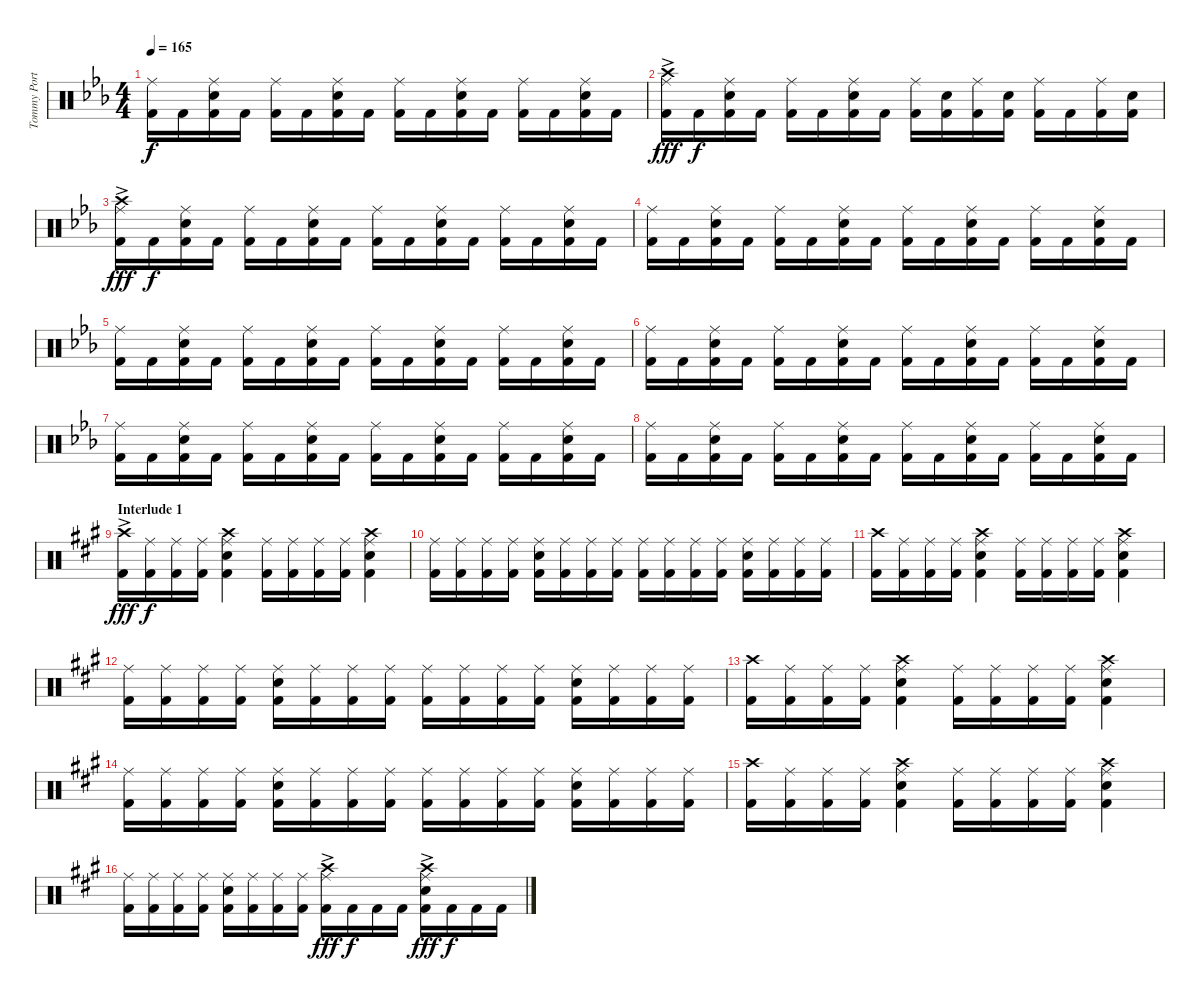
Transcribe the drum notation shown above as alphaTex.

\track ("Tommy Portimo" "Tommy Port") {instrument percussion}
\staff {score}
\articulation defaults
\ts (4 4)
\tempo 165
\clef neutral
\ks cminor
("Ride (middle)" "Kick (hit) 2").16{dy f} "Kick (hit) 2".16 ("Ride (middle)" "Electric Snare (hit)" "Kick (hit) 2").16 "Kick (hit) 2".16 ("Ride (middle)" "Kick (hit) 2").16 "Kick (hit) 2".16 ("Ride (middle)" "Electric Snare (hit)" "Kick (hit) 2").16 "Kick (hit) 2".16 ("Ride (middle)" "Kick (hit) 2").16 "Kick (hit) 2".16 ("Ride (middle)" "Electric Snare (hit)" "Kick (hit) 2").16 "Kick (hit) 2".16 ("Ride (middle)" "Kick (hit) 2").16 "Kick (hit) 2".16 ("Ride (middle)" "Electric Snare (hit)" "Kick (hit) 2").16 "Kick (hit) 2".16 |
("Crash high (hit)"{ac} "Ride (middle)" "Kick (hit) 2").16{dy fff} "Kick (hit) 2".16{dy f} ("Ride (middle)" "Electric Snare (hit)" "Kick (hit) 2").16 "Kick (hit) 2".16 ("Ride (middle)" "Kick (hit) 2").16 "Kick (hit) 2".16 ("Ride (middle)" "Electric Snare (hit)" "Kick (hit) 2").16 "Kick (hit) 2".16 ("Ride (middle)" "Kick (hit) 2").16 ("Electric Snare (hit)" "Kick (hit) 2").16 ("Ride (middle)" "Kick (hit) 2").16 ("Electric Snare (hit)" "Kick (hit) 2").16 ("Ride (middle)" "Kick (hit) 2").16 "Kick (hit) 2".16 ("Ride (middle)" "Kick (hit) 2").16 ("Electric Snare (hit)" "Kick (hit) 2").16 |
("Crash high (hit)"{ac} "Ride (middle)" "Kick (hit) 2").16{dy fff} "Kick (hit) 2".16{dy f} ("Ride (middle)" "Electric Snare (hit)" "Kick (hit) 2").16 "Kick (hit) 2".16 ("Ride (middle)" "Kick (hit) 2").16 "Kick (hit) 2".16 ("Ride (middle)" "Electric Snare (hit)" "Kick (hit) 2").16 "Kick (hit) 2".16 ("Ride (middle)" "Kick (hit) 2").16 "Kick (hit) 2".16 ("Ride (middle)" "Electric Snare (hit)" "Kick (hit) 2").16 "Kick (hit) 2".16 ("Ride (middle)" "Kick (hit) 2").16 "Kick (hit) 2".16 ("Ride (middle)" "Electric Snare (hit)" "Kick (hit) 2").16 "Kick (hit) 2".16 |
("Ride (middle)" "Kick (hit) 2").16 "Kick (hit) 2".16 ("Ride (middle)" "Electric Snare (hit)" "Kick (hit) 2").16 "Kick (hit) 2".16 ("Ride (middle)" "Kick (hit) 2").16 "Kick (hit) 2".16 ("Ride (middle)" "Electric Snare (hit)" "Kick (hit) 2").16 "Kick (hit) 2".16 ("Ride (middle)" "Kick (hit) 2").16 "Kick (hit) 2".16 ("Ride (middle)" "Electric Snare (hit)" "Kick (hit) 2").16 "Kick (hit) 2".16 ("Ride (middle)" "Kick (hit) 2").16 "Kick (hit) 2".16 ("Ride (middle)" "Electric Snare (hit)" "Kick (hit) 2").16 "Kick (hit) 2".16 |
("Ride (middle)" "Kick (hit) 2").16 "Kick (hit) 2".16 ("Ride (middle)" "Electric Snare (hit)" "Kick (hit) 2").16 "Kick (hit) 2".16 ("Ride (middle)" "Kick (hit) 2").16 "Kick (hit) 2".16 ("Ride (middle)" "Electric Snare (hit)" "Kick (hit) 2").16 "Kick (hit) 2".16 ("Ride (middle)" "Kick (hit) 2").16 "Kick (hit) 2".16 ("Ride (middle)" "Electric Snare (hit)" "Kick (hit) 2").16 "Kick (hit) 2".16 ("Ride (middle)" "Kick (hit) 2").16 "Kick (hit) 2".16 ("Ride (middle)" "Electric Snare (hit)" "Kick (hit) 2").16 "Kick (hit) 2".16 |
("Ride (middle)" "Kick (hit) 2").16 "Kick (hit) 2".16 ("Ride (middle)" "Electric Snare (hit)" "Kick (hit) 2").16 "Kick (hit) 2".16 ("Ride (middle)" "Kick (hit) 2").16 "Kick (hit) 2".16 ("Ride (middle)" "Electric Snare (hit)" "Kick (hit) 2").16 "Kick (hit) 2".16 ("Ride (middle)" "Kick (hit) 2").16 "Kick (hit) 2".16 ("Ride (middle)" "Electric Snare (hit)" "Kick (hit) 2").16 "Kick (hit) 2".16 ("Ride (middle)" "Kick (hit) 2").16 "Kick (hit) 2".16 ("Ride (middle)" "Electric Snare (hit)" "Kick (hit) 2").16 "Kick (hit) 2".16 |
("Ride (middle)" "Kick (hit) 2").16 "Kick (hit) 2".16 ("Ride (middle)" "Electric Snare (hit)" "Kick (hit) 2").16 "Kick (hit) 2".16 ("Ride (middle)" "Kick (hit) 2").16 "Kick (hit) 2".16 ("Ride (middle)" "Electric Snare (hit)" "Kick (hit) 2").16 "Kick (hit) 2".16 ("Ride (middle)" "Kick (hit) 2").16 "Kick (hit) 2".16 ("Ride (middle)" "Electric Snare (hit)" "Kick (hit) 2").16 "Kick (hit) 2".16 ("Ride (middle)" "Kick (hit) 2").16 "Kick (hit) 2".16 ("Ride (middle)" "Electric Snare (hit)" "Kick (hit) 2").16 "Kick (hit) 2".16 |
("Ride (middle)" "Kick (hit) 2").16 "Kick (hit) 2".16 ("Ride (middle)" "Electric Snare (hit)" "Kick (hit) 2").16 "Kick (hit) 2".16 ("Ride (middle)" "Kick (hit) 2").16 "Kick (hit) 2".16 ("Ride (middle)" "Electric Snare (hit)" "Kick (hit) 2").16 "Kick (hit) 2".16 ("Ride (middle)" "Kick (hit) 2").16 "Kick (hit) 2".16 ("Ride (middle)" "Electric Snare (hit)" "Kick (hit) 2").16 "Kick (hit) 2".16 ("Ride (middle)" "Kick (hit) 2").16 "Kick (hit) 2".16 ("Ride (middle)" "Electric Snare (hit)" "Kick (hit) 2").16 "Kick (hit) 2".16 |
\section ("" "Interlude 1")
\ks f#minor
("Crash high (hit)"{ac} "Kick (hit) 2").16{dy fff} ("Ride (middle)" "Kick (hit) 2").16{dy f} ("Ride (middle)" "Kick (hit) 2").16 ("Ride (middle)" "Kick (hit) 2").16 ("Crash high (hit)" "Ride (middle)" "Electric Snare (hit)" "Kick (hit) 2").4 ("Ride (middle)" "Kick (hit) 2").16 ("Ride (middle)" "Kick (hit) 2").16 ("Ride (middle)" "Kick (hit) 2").16 ("Ride (middle)" "Kick (hit) 2").16 ("Crash high (hit)" "Ride (middle)" "Electric Snare (hit)" "Kick (hit) 2").4 |
("Ride (middle)" "Kick (hit) 2").16 ("Ride (middle)" "Kick (hit) 2").16 ("Ride (middle)" "Kick (hit) 2").16 ("Ride (middle)" "Kick (hit) 2").16 ("Ride (middle)" "Electric Snare (hit)" "Kick (hit) 2").16 ("Ride (middle)" "Kick (hit) 2").16 ("Ride (middle)" "Kick (hit) 2").16 ("Ride (middle)" "Kick (hit) 2").16 ("Ride (middle)" "Kick (hit) 2").16 ("Ride (middle)" "Kick (hit) 2").16 ("Ride (middle)" "Kick (hit) 2").16 ("Ride (middle)" "Kick (hit) 2").16 ("Ride (middle)" "Electric Snare (hit)" "Kick (hit) 2").16 ("Ride (middle)" "Kick (hit) 2").16 ("Ride (middle)" "Kick (hit) 2").16 ("Ride (middle)" "Kick (hit) 2").16 |
("Crash high (hit)" "Kick (hit) 2").16 ("Ride (middle)" "Kick (hit) 2").16 ("Ride (middle)" "Kick (hit) 2").16 ("Ride (middle)" "Kick (hit) 2").16 ("Crash high (hit)" "Ride (middle)" "Electric Snare (hit)" "Kick (hit) 2").4 ("Ride (middle)" "Kick (hit) 2").16 ("Ride (middle)" "Kick (hit) 2").16 ("Ride (middle)" "Kick (hit) 2").16 ("Ride (middle)" "Kick (hit) 2").16 ("Crash high (hit)" "Ride (middle)" "Electric Snare (hit)" "Kick (hit) 2").4 |
("Ride (middle)" "Kick (hit) 2").16 ("Ride (middle)" "Kick (hit) 2").16 ("Ride (middle)" "Kick (hit) 2").16 ("Ride (middle)" "Kick (hit) 2").16 ("Ride (middle)" "Electric Snare (hit)" "Kick (hit) 2").16 ("Ride (middle)" "Kick (hit) 2").16 ("Ride (middle)" "Kick (hit) 2").16 ("Ride (middle)" "Kick (hit) 2").16 ("Ride (middle)" "Kick (hit) 2").16 ("Ride (middle)" "Kick (hit) 2").16 ("Ride (middle)" "Kick (hit) 2").16 ("Ride (middle)" "Kick (hit) 2").16 ("Ride (middle)" "Electric Snare (hit)" "Kick (hit) 2").16 ("Ride (middle)" "Kick (hit) 2").16 ("Ride (middle)" "Kick (hit) 2").16 ("Ride (middle)" "Kick (hit) 2").16 |
("Crash high (hit)" "Kick (hit) 2").16 ("Ride (middle)" "Kick (hit) 2").16 ("Ride (middle)" "Kick (hit) 2").16 ("Ride (middle)" "Kick (hit) 2").16 ("Crash high (hit)" "Ride (middle)" "Electric Snare (hit)" "Kick (hit) 2").4 ("Ride (middle)" "Kick (hit) 2").16 ("Ride (middle)" "Kick (hit) 2").16 ("Ride (middle)" "Kick (hit) 2").16 ("Ride (middle)" "Kick (hit) 2").16 ("Crash high (hit)" "Ride (middle)" "Electric Snare (hit)" "Kick (hit) 2").4 |
("Ride (middle)" "Kick (hit) 2").16 ("Ride (middle)" "Kick (hit) 2").16 ("Ride (middle)" "Kick (hit) 2").16 ("Ride (middle)" "Kick (hit) 2").16 ("Ride (middle)" "Electric Snare (hit)" "Kick (hit) 2").16 ("Ride (middle)" "Kick (hit) 2").16 ("Ride (middle)" "Kick (hit) 2").16 ("Ride (middle)" "Kick (hit) 2").16 ("Ride (middle)" "Kick (hit) 2").16 ("Ride (middle)" "Kick (hit) 2").16 ("Ride (middle)" "Kick (hit) 2").16 ("Ride (middle)" "Kick (hit) 2").16 ("Ride (middle)" "Electric Snare (hit)" "Kick (hit) 2").16 ("Ride (middle)" "Kick (hit) 2").16 ("Ride (middle)" "Kick (hit) 2").16 ("Ride (middle)" "Kick (hit) 2").16 |
("Crash high (hit)" "Kick (hit) 2").16 ("Ride (middle)" "Kick (hit) 2").16 ("Ride (middle)" "Kick (hit) 2").16 ("Ride (middle)" "Kick (hit) 2").16 ("Crash high (hit)" "Ride (middle)" "Electric Snare (hit)" "Kick (hit) 2").4 ("Ride (middle)" "Kick (hit) 2").16 ("Ride (middle)" "Kick (hit) 2").16 ("Ride (middle)" "Kick (hit) 2").16 ("Ride (middle)" "Kick (hit) 2").16 ("Crash high (hit)" "Ride (middle)" "Electric Snare (hit)" "Kick (hit) 2").4 |
("Ride (middle)" "Kick (hit) 2").16 ("Ride (middle)" "Kick (hit) 2").16 ("Ride (middle)" "Kick (hit) 2").16 ("Ride (middle)" "Kick (hit) 2").16 ("Ride (middle)" "Electric Snare (hit)" "Kick (hit) 2").16 ("Ride (middle)" "Kick (hit) 2").16 ("Ride (middle)" "Kick (hit) 2").16 ("Ride (middle)" "Kick (hit) 2").16 ("Crash high (hit)"{ac} "Ride (middle)" "Kick (hit) 2").16{dy fff} "Kick (hit) 2".16{dy f} "Kick (hit) 2".16 "Kick (hit) 2".16 ("Crash high (hit)"{ac} "Ride (middle)" "Electric Snare (hit)" "Kick (hit) 2").16{dy fff} "Kick (hit) 2".16{dy f} "Kick (hit) 2".16 "Kick (hit) 2".16
